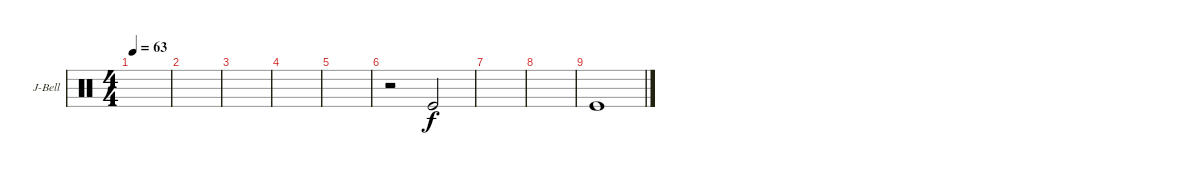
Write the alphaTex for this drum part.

\defaultSystemsLayout 4
\bracketExtendMode groupsimilarinstruments
\firstSystemTrackNameOrientation horizontal
\otherSystemsTrackNameOrientation horizontal
\track ("Jingle Bell" "J-Bell") {instrument percussion}
\staff {score}
\articulation defaults
\ts (4 4)
\tempo 63
\clef neutral
\scale
0.333333
\ks c
|
\scale
0.333333 |
\scale
0.333333 |
\scale
0.333333 |
\scale
0.333333 |
\scale
0.333333 r.2 "Kick (hit)".2 |
\scale
0.333333 |
\scale
0.333333 |
\scale
0.333333 "Kick (hit)".1 |
\scale
0.333333 |
\scale
0.333333 |
\scale
0.333333 |
\scale
0.333333 |
\scale
0.333333 |
\scale
0.322034 |
\scale
0.355932
